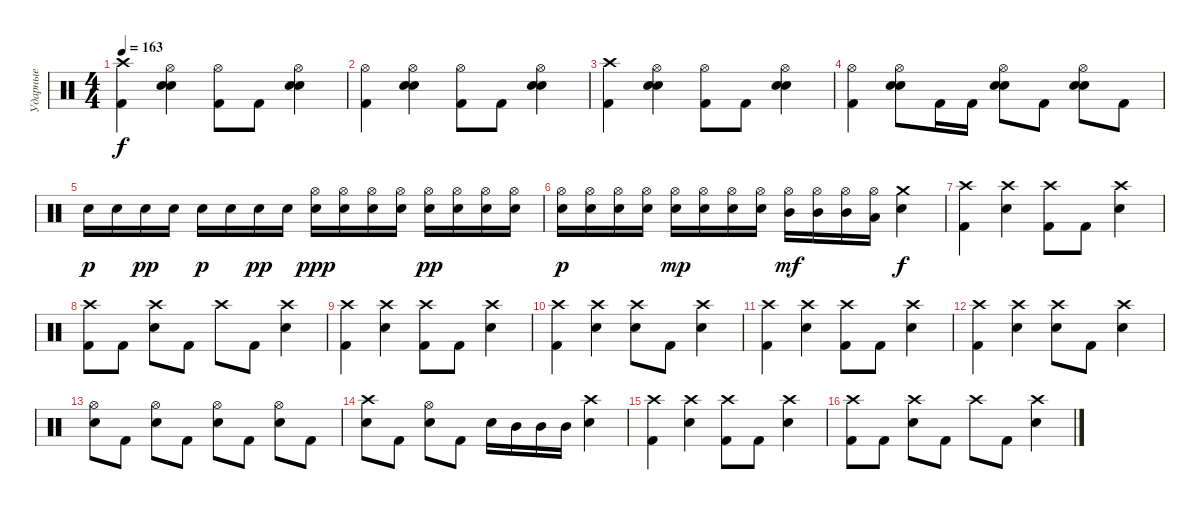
\track ("Ударные" "Ударные") {instrument percussion}
\staff {score}
\articulation defaults
\ts (4 4)
\tempo 163
\clef neutral
\ks c
("Kick (hit) 2" "Crash high (hit)").4{dy f} ("Electric Snare (hit)" "Snare (hit) 2" "Hi-Hat (open)").4 ("Kick (hit) 2" "Hi-Hat (open)").8 "Kick (hit) 2".8 ("Electric Snare (hit)" "Snare (hit) 2" "Hi-Hat (open)").4 |
("Kick (hit) 2" "Hi-Hat (open)").4 ("Electric Snare (hit)" "Snare (hit) 2" "Hi-Hat (open)").4 ("Kick (hit) 2" "Hi-Hat (open)").8 "Kick (hit) 2".8 ("Electric Snare (hit)" "Snare (hit) 2" "Hi-Hat (open)").4 |
("Kick (hit) 2" "Crash high (hit)").4 ("Electric Snare (hit)" "Snare (hit) 2" "Hi-Hat (open)").4 ("Kick (hit) 2" "Hi-Hat (open)").8 "Kick (hit) 2".8 ("Electric Snare (hit)" "Snare (hit) 2" "Hi-Hat (open)").4 |
("Kick (hit) 2" "Hi-Hat (open)").4 ("Electric Snare (hit)" "Snare (hit) 2" "Hi-Hat (open)").8 "Kick (hit) 2".16 "Kick (hit) 2".16 ("Electric Snare (hit)" "Snare (hit) 2" "Hi-Hat (open)").8 "Kick (hit) 2".8 ("Electric Snare (hit)" "Snare (hit) 2" "Hi-Hat (open)").8 "Kick (hit) 2".8 |
"Electric Snare (hit)".16{dy p} "Electric Snare (hit)".16 "Electric Snare (hit)".16{dy pp} "Electric Snare (hit)".16 "Electric Snare (hit)".16{dy p} "Electric Snare (hit)".16 "Electric Snare (hit)".16{dy pp} "Electric Snare (hit)".16 ("Electric Snare (hit)" "Hi-Hat (open)").16{dy ppp} ("Electric Snare (hit)" "Hi-Hat (open)").16 ("Electric Snare (hit)" "Hi-Hat (open)").16 ("Electric Snare (hit)" "Hi-Hat (open)").16 ("Electric Snare (hit)" "Hi-Hat (open)").16{dy pp} ("Electric Snare (hit)" "Hi-Hat (open)").16 ("Electric Snare (hit)" "Hi-Hat (open)").16 ("Electric Snare (hit)" "Hi-Hat (open)").16 |
("Electric Snare (hit)" "Hi-Hat (open)").16{dy p} ("Electric Snare (hit)" "Hi-Hat (open)").16 ("Electric Snare (hit)" "Hi-Hat (open)").16 ("Electric Snare (hit)" "Hi-Hat (open)").16 ("Electric Snare (hit)" "Hi-Hat (open)").16{dy mp} ("Electric Snare (hit)" "Hi-Hat (open)").16 ("Electric Snare (hit)" "Hi-Hat (open)").16 ("Electric Snare (hit)" "Hi-Hat (open)").16 ("Mid Tom (hit)" "Hi-Hat (open)").16{dy mf} ("Mid Tom (hit)" "Hi-Hat (open)").16 ("Mid Tom (hit)" "Hi-Hat (open)").16 ("Low Tom (hit)" "Hi-Hat (open)").16 ("Electric Snare (hit)" "Crash medium (hit)").4{dy f} |
("Kick (hit) 2" "Crash high (hit)").4 ("Snare (hit) 2" "Crash high (hit)").4 ("Kick (hit) 2" "Crash high (hit)").8 "Kick (hit) 2".8 ("Snare (hit) 2" "Crash high (hit)").4 |
("Kick (hit) 2" "Crash high (hit)").8 "Kick (hit) 2".8 ("Snare (hit) 2" "Crash high (hit)").8 "Kick (hit) 2".8 "Crash high (hit)".8 "Kick (hit) 2".8 ("Snare (hit) 2" "Crash high (hit)").4 |
("Kick (hit) 2" "Crash high (hit)").4 ("Snare (hit) 2" "Crash high (hit)").4 ("Kick (hit) 2" "Crash high (hit)").8 "Kick (hit) 2".8 ("Snare (hit) 2" "Crash high (hit)").4 |
("Kick (hit) 2" "Crash high (hit)").4 ("Snare (hit) 2" "Crash high (hit)").4 ("Snare (hit) 2" "Crash high (hit)").8 "Kick (hit) 2".8 ("Snare (hit) 2" "Crash high (hit)").4 |
("Kick (hit) 2" "Crash high (hit)").4 ("Snare (hit) 2" "Crash high (hit)").4 ("Kick (hit) 2" "Crash high (hit)").8 "Kick (hit) 2".8 ("Snare (hit) 2" "Crash high (hit)").4 |
("Kick (hit) 2" "Crash high (hit)").4 ("Snare (hit) 2" "Crash high (hit)").4 ("Snare (hit) 2" "Crash high (hit)").8 "Kick (hit) 2".8 ("Snare (hit) 2" "Crash high (hit)").4 |
("Snare (hit) 2" "Hi-Hat (open)").8 "Kick (hit) 2".8 ("Snare (hit) 2" "Hi-Hat (open)").8 "Kick (hit) 2".8 ("Snare (hit) 2" "Hi-Hat (open)").8 "Kick (hit) 2".8 ("Snare (hit) 2" "Hi-Hat (open)").8 "Kick (hit) 2".8 |
("Snare (hit) 2" "Crash high (hit)").8 "Kick (hit) 2".8 ("Snare (hit) 2" "Hi-Hat (open)").8 "Kick (hit) 2".8 "Electric Snare (hit)".16 "Mid Tom (hit)".16 "Mid Tom (hit)".16 "Mid Tom (hit)".16 ("Electric Snare (hit)" "Crash high (hit)").4 |
("Kick (hit) 2" "Crash high (hit)").4 ("Snare (hit) 2" "Crash high (hit)").4 ("Kick (hit) 2" "Crash high (hit)").8 "Kick (hit) 2".8 ("Snare (hit) 2" "Crash high (hit)").4 |
("Kick (hit) 2" "Crash high (hit)").8 "Kick (hit) 2".8 ("Snare (hit) 2" "Crash high (hit)").8 "Kick (hit) 2".8 "Crash high (hit)".8 "Kick (hit) 2".8 ("Snare (hit) 2" "Crash high (hit)").4
